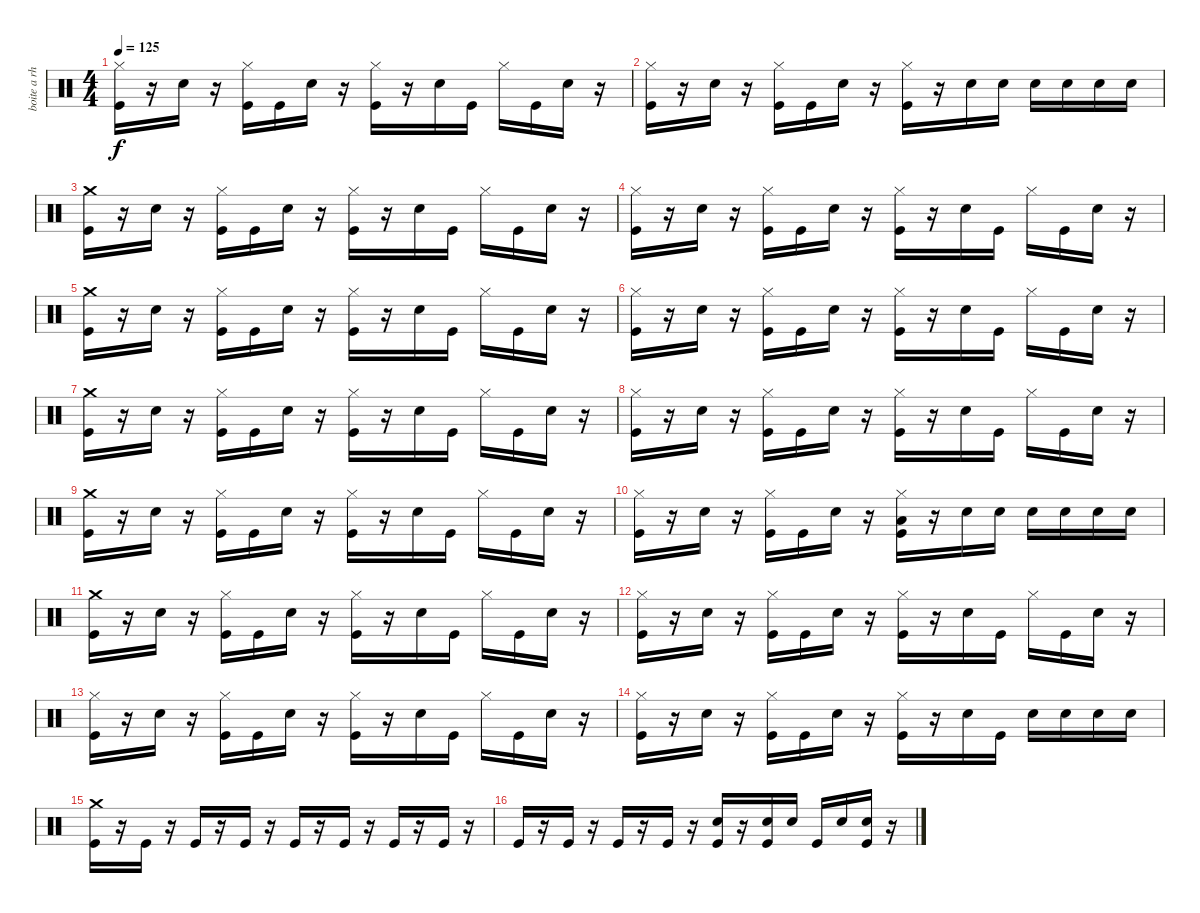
\track ("boite a rhytme ( jean-Francois )" "boite a rh") {instrument percussion}
\staff {score}
\articulation defaults
\ts (4 4)
\tempo 125
\clef neutral
\ks c
("Hi-Hat (closed)" "Kick (hit)").16{dy f} r.16 "Snare (hit) 2".16 r.16 ("Hi-Hat (closed)" "Kick (hit)").16 "Kick (hit)".16 "Snare (hit) 2".16 r.16 ("Hi-Hat (closed)" "Kick (hit)").16 r.16 "Snare (hit) 2".16 "Kick (hit)".16 "Hi-Hat (closed)".16 "Kick (hit)".16 "Snare (hit) 2".16 r.16 |
("Hi-Hat (closed)" "Kick (hit)").16 r.16 "Snare (hit) 2".16 r.16 ("Hi-Hat (closed)" "Kick (hit)").16 "Kick (hit)".16 "Snare (hit) 2".16 r.16 ("Hi-Hat (closed)" "Kick (hit)").16 r.16 "Snare (hit) 2".16 "Snare (hit) 2".16 "Snare (hit) 2".16 "Snare (hit) 2".16 "Snare (hit) 2".16 "Snare (hit) 2".16 |
("Crash medium (hit)" "Kick (hit)").16 r.16 "Snare (hit) 2".16 r.16 ("Hi-Hat (closed)" "Kick (hit)").16 "Kick (hit)".16 "Snare (hit) 2".16 r.16 ("Hi-Hat (closed)" "Kick (hit)").16 r.16 "Snare (hit) 2".16 "Kick (hit)".16 "Hi-Hat (closed)".16 "Kick (hit)".16 "Snare (hit) 2".16 r.16 |
("Hi-Hat (closed)" "Kick (hit)").16 r.16 "Snare (hit) 2".16 r.16 ("Hi-Hat (closed)" "Kick (hit)").16 "Kick (hit)".16 "Snare (hit) 2".16 r.16 ("Hi-Hat (closed)" "Kick (hit)").16 r.16 "Snare (hit) 2".16 "Kick (hit)".16 "Hi-Hat (closed)".16 "Kick (hit)".16 "Snare (hit) 2".16 r.16 |
("Crash medium (hit)" "Kick (hit)").16 r.16 "Snare (hit) 2".16 r.16 ("Hi-Hat (closed)" "Kick (hit)").16 "Kick (hit)".16 "Snare (hit) 2".16 r.16 ("Hi-Hat (closed)" "Kick (hit)").16 r.16 "Snare (hit) 2".16 "Kick (hit)".16 "Hi-Hat (closed)".16 "Kick (hit)".16 "Snare (hit) 2".16 r.16 |
("Hi-Hat (closed)" "Kick (hit)").16 r.16 "Snare (hit) 2".16 r.16 ("Hi-Hat (closed)" "Kick (hit)").16 "Kick (hit)".16 "Snare (hit) 2".16 r.16 ("Hi-Hat (closed)" "Kick (hit)").16 r.16 "Snare (hit) 2".16 "Kick (hit)".16 "Hi-Hat (closed)".16 "Kick (hit)".16 "Snare (hit) 2".16 r.16 |
("Crash medium (hit)" "Kick (hit)").16 r.16 "Snare (hit) 2".16 r.16 ("Hi-Hat (closed)" "Kick (hit)").16 "Kick (hit)".16 "Snare (hit) 2".16 r.16 ("Hi-Hat (closed)" "Kick (hit)").16 r.16 "Snare (hit) 2".16 "Kick (hit)".16 "Hi-Hat (closed)".16 "Kick (hit)".16 "Snare (hit) 2".16 r.16 |
("Hi-Hat (closed)" "Kick (hit)").16 r.16 "Snare (hit) 2".16 r.16 ("Hi-Hat (closed)" "Kick (hit)").16 "Kick (hit)".16 "Snare (hit) 2".16 r.16 ("Hi-Hat (closed)" "Kick (hit)").16 r.16 "Snare (hit) 2".16 "Kick (hit)".16 "Hi-Hat (closed)".16 "Kick (hit)".16 "Snare (hit) 2".16 r.16 |
("Crash medium (hit)" "Kick (hit)").16 r.16 "Snare (hit) 2".16 r.16 ("Hi-Hat (closed)" "Kick (hit)").16 "Kick (hit)".16 "Snare (hit) 2".16 r.16 ("Hi-Hat (closed)" "Kick (hit)").16 r.16 "Snare (hit) 2".16 "Kick (hit)".16 "Hi-Hat (closed)".16 "Kick (hit)".16 "Snare (hit) 2".16 r.16 |
("Hi-Hat (closed)" "Kick (hit)").16 r.16 "Snare (hit) 2".16 r.16 ("Hi-Hat (closed)" "Kick (hit)").16 "Kick (hit)".16 "Snare (hit) 2".16 r.16 ("Hi-Hat (closed)" "Low Floor Tom (hit)" "Kick (hit)").16 r.16 "Snare (hit) 2".16 "Snare (hit) 2".16 "Snare (hit) 2".16 "Snare (hit) 2".16 "Snare (hit) 2".16 "Snare (hit) 2".16 |
("Crash medium (hit)" "Kick (hit)").16 r.16 "Snare (hit) 2".16 r.16 ("Hi-Hat (closed)" "Kick (hit)").16 "Kick (hit)".16 "Snare (hit) 2".16 r.16 ("Hi-Hat (closed)" "Kick (hit)").16 r.16 "Snare (hit) 2".16 "Kick (hit)".16 "Hi-Hat (closed)".16 "Kick (hit)".16 "Snare (hit) 2".16 r.16 |
("Hi-Hat (closed)" "Kick (hit)").16 r.16 "Snare (hit) 2".16 r.16 ("Hi-Hat (closed)" "Kick (hit)").16 "Kick (hit)".16 "Snare (hit) 2".16 r.16 ("Hi-Hat (closed)" "Kick (hit)").16 r.16 "Snare (hit) 2".16 "Kick (hit)".16 "Hi-Hat (closed)".16 "Kick (hit)".16 "Snare (hit) 2".16 r.16 |
("Hi-Hat (closed)" "Kick (hit)").16 r.16 "Snare (hit) 2".16 r.16 ("Hi-Hat (closed)" "Kick (hit)").16 "Kick (hit)".16 "Snare (hit) 2".16 r.16 ("Hi-Hat (closed)" "Kick (hit)").16 r.16 "Snare (hit) 2".16 "Kick (hit)".16 "Hi-Hat (closed)".16 "Kick (hit)".16 "Snare (hit) 2".16 r.16 |
("Hi-Hat (closed)" "Kick (hit)").16 r.16 "Snare (hit) 2".16 r.16 ("Hi-Hat (closed)" "Kick (hit)").16 "Kick (hit)".16 "Snare (hit) 2".16 r.16 ("Hi-Hat (closed)" "Kick (hit)").16 r.16 "Snare (hit) 2".16 "Kick (hit)".16 "Snare (hit) 2".16 "Snare (hit) 2".16 "Snare (hit) 2".16 "Snare (hit) 2".16 |
("Crash medium (hit)" "Kick (hit)").16 r.16 "Kick (hit)".16 r.16 "Kick (hit)".16 r.16 "Kick (hit)".16 r.16 "Kick (hit)".16 r.16 "Kick (hit)".16 r.16 "Kick (hit)".16 r.16 "Kick (hit)".16 r.16 |
"Kick (hit)".16 r.16 "Kick (hit)".16 r.16 "Kick (hit)".16 r.16 "Kick (hit)".16 r.16 ("Snare (hit) 2" "Kick (hit)").16 r.16 ("Snare (hit) 2" "Kick (hit)").16 "Snare (hit) 2".16 "Kick (hit)".16 "Snare (hit) 2".16 ("Snare (hit) 2" "Kick (hit)").16 r.16
